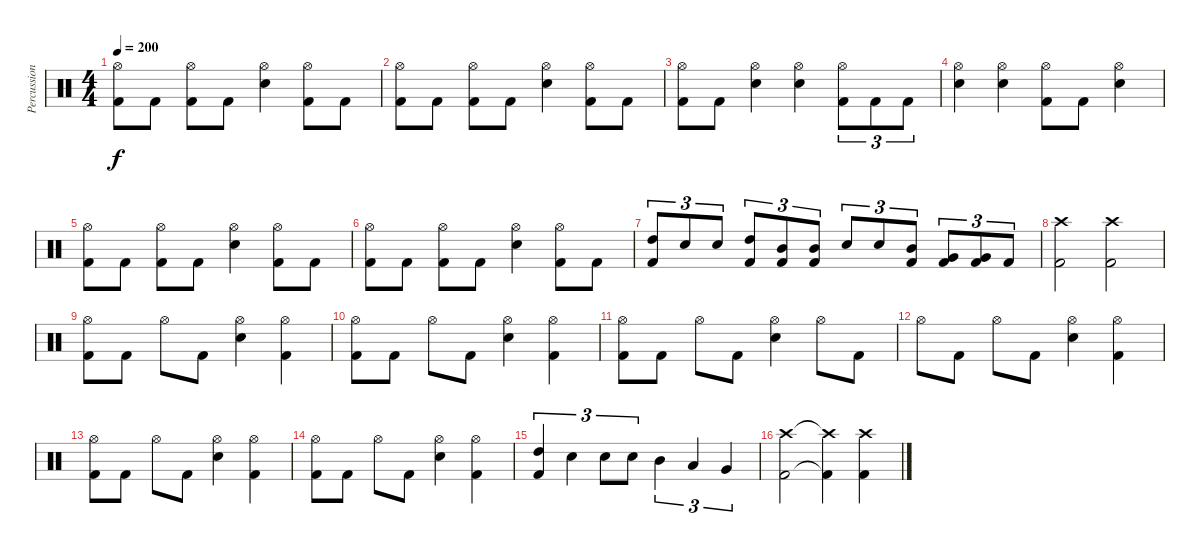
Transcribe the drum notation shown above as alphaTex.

\track ("Percussion" "Percussion") {instrument percussion}
\staff {score}
\articulation defaults
\ts (4 4)
\tempo 200
\clef neutral
\ks c
("Hi-Hat (open)" "Kick (hit) 2").8{dy f} "Kick (hit) 2".8 ("Hi-Hat (open)" "Kick (hit) 2").8 "Kick (hit) 2".8 ("Hi-Hat (open)" "Snare (hit) 2").4 ("Hi-Hat (open)" "Kick (hit) 2").8 "Kick (hit) 2".8 |
("Hi-Hat (open)" "Kick (hit) 2").8 "Kick (hit) 2".8 ("Hi-Hat (open)" "Kick (hit) 2").8 "Kick (hit) 2".8 ("Hi-Hat (open)" "Snare (hit) 2").4 ("Hi-Hat (open)" "Kick (hit) 2").8 "Kick (hit) 2".8 |
("Hi-Hat (open)" "Kick (hit) 2").8 "Kick (hit) 2".8 ("Hi-Hat (open)" "Snare (hit) 2").4 ("Hi-Hat (open)" "Snare (hit) 2").4 ("Hi-Hat (open)" "Kick (hit) 2").8{tu (3 2)} "Kick (hit) 2".8{tu (3 2)} "Kick (hit) 2".8{tu (3 2)} |
("Hi-Hat (open)" "Snare (hit) 2").4 ("Hi-Hat (open)" "Snare (hit) 2").4 ("Hi-Hat (open)" "Kick (hit) 2").8 "Kick (hit) 2".8 ("Hi-Hat (open)" "Snare (hit) 2").4 |
("Hi-Hat (open)" "Kick (hit) 2").8 "Kick (hit) 2".8 ("Hi-Hat (open)" "Kick (hit) 2").8 "Kick (hit) 2".8 ("Hi-Hat (open)" "Snare (hit) 2").4 ("Hi-Hat (open)" "Kick (hit) 2").8 "Kick (hit) 2".8 |
("Hi-Hat (open)" "Kick (hit) 2").8 "Kick (hit) 2".8 ("Hi-Hat (open)" "Kick (hit) 2").8 "Kick (hit) 2".8 ("Hi-Hat (open)" "Snare (hit) 2").4 ("Hi-Hat (open)" "Kick (hit) 2").8 "Kick (hit) 2".8 |
("High Tom (hit)" "Kick (hit) 2").8{tu (3 2)} "Snare (hit) 2".8{tu (3 2)} "Snare (hit) 2".8{tu (3 2)} ("High Tom (hit)" "Kick (hit) 2").8{tu (3 2)} ("Mid Tom (hit)" "Kick (hit) 2").8{tu (3 2)} ("Mid Tom (hit)" "Kick (hit) 2").8{tu (3 2)} "Snare (hit) 2".8{tu (3 2)} "Snare (hit) 2".8{tu (3 2)} ("Mid Tom (hit)" "Kick (hit) 2").8{tu (3 2)} ("Very Low Tom (hit)" "Kick (hit) 2").8{tu (3 2)} ("Very Low Tom (hit)" "Kick (hit) 2").8{tu (3 2)} "Kick (hit) 2".8{tu (3 2)} |
("Crash high (hit)" "Kick (hit) 2").2 ("Crash high (hit)" "Kick (hit) 2").2 |
("Hi-Hat (open)" "Kick (hit) 2").8 "Kick (hit) 2".8 "Hi-Hat (open)".8 "Kick (hit) 2".8 ("Hi-Hat (open)" "Snare (hit) 2").4 ("Hi-Hat (open)" "Kick (hit) 2").4 |
("Hi-Hat (open)" "Kick (hit) 2").8 "Kick (hit) 2".8 "Hi-Hat (open)".8 "Kick (hit) 2".8 ("Hi-Hat (open)" "Snare (hit) 2").4 ("Hi-Hat (open)" "Kick (hit) 2").4 |
("Hi-Hat (open)" "Kick (hit) 2").8 "Kick (hit) 2".8 "Hi-Hat (open)".8 "Kick (hit) 2".8 ("Hi-Hat (open)" "Snare (hit) 2").4 "Hi-Hat (open)".8 "Kick (hit) 2".8 |
"Hi-Hat (open)".8 "Kick (hit) 2".8 "Hi-Hat (open)".8 "Kick (hit) 2".8 ("Hi-Hat (open)" "Snare (hit) 2").4 ("Hi-Hat (open)" "Kick (hit) 2").4 |
("Hi-Hat (open)" "Kick (hit) 2").8 "Kick (hit) 2".8 "Hi-Hat (open)".8 "Kick (hit) 2".8 ("Hi-Hat (open)" "Snare (hit) 2").4 ("Hi-Hat (open)" "Kick (hit) 2").4 |
("Hi-Hat (open)" "Kick (hit) 2").8 "Kick (hit) 2".8 "Hi-Hat (open)".8 "Kick (hit) 2".8 ("Hi-Hat (open)" "Snare (hit) 2").4 ("Hi-Hat (open)" "Kick (hit) 2").4 |
("High Tom (hit)" "Kick (hit) 2").4{tu (3 2)} "Snare (hit) 2".4{tu (3 2)} "Snare (hit) 2".8{tu (3 2)} "Snare (hit) 2".8{tu (3 2)} "Mid Tom (hit)".4{tu (3 2)} "Low Tom (hit)".4{tu (3 2)} "Very Low Tom (hit)".4{tu (3 2)} |
("Crash high (hit)" "Kick (hit) 2").2 ("Crash high (hit)"{t} "Kick (hit) 2"{t}).4 ("Crash high (hit)" "Kick (hit) 2").4
